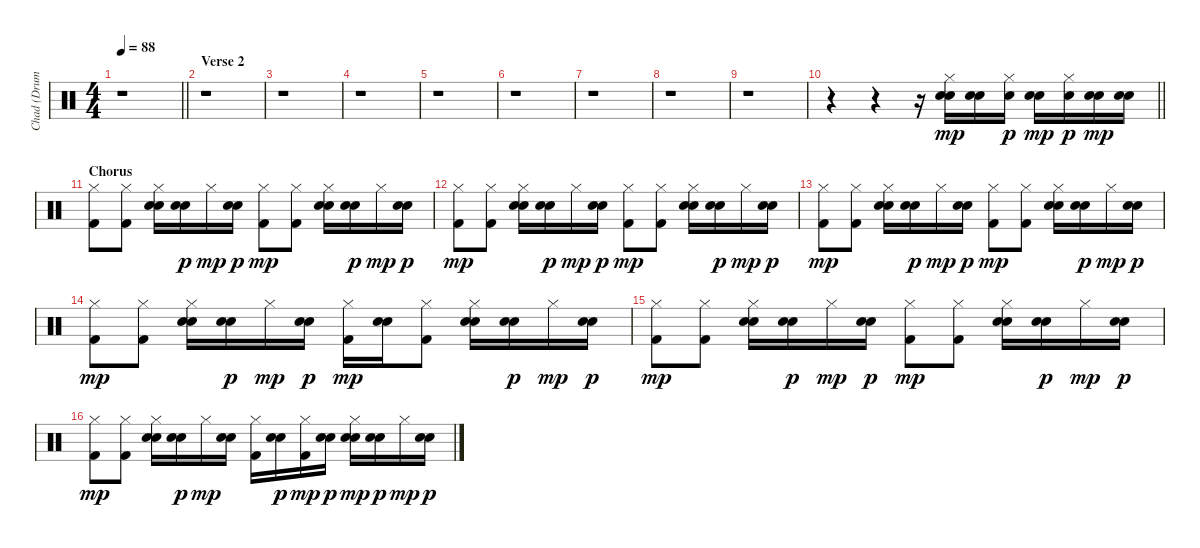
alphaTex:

\track ("Chad (Drums)" "Chad (Drum") {instrument percussion}
\staff {score}
\articulation defaults
\ts (4 4)
\tempo 88
\clef neutral
\barLineRight lightlight
\ks c
r.1{dy mp} |
\section ("" "Verse 2")
r.1 |
r.1 |
r.1 |
r.1 |
r.1 |
r.1 |
r.1 |
r.1 |
\barLineRight lightlight
r.4 r.4 r.16 ("Hi-Hat (closed)" "Electric Snare (hit)" "Snare (hit) 2").16 ("Electric Snare (hit)" "Snare (hit) 2").16 ("Hi-Hat (closed)" "Snare (hit) 2").16{dy p} ("Electric Snare (hit)" "Snare (hit) 2").16{dy mp} ("Hi-Hat (closed)" "Snare (hit) 2").16{dy p} ("Electric Snare (hit)" "Snare (hit) 2").16{dy mp} ("Electric Snare (hit)" "Snare (hit) 2").16 |
\section ("" "Chorus")
("Hi-Hat (closed)" "Kick (hit) 2").8 ("Hi-Hat (closed)" "Kick (hit) 2").8 ("Hi-Hat (closed)" "Electric Snare (hit)" "Snare (hit) 2").16 ("Electric Snare (hit)" "Snare (hit) 2").16{dy p} "Hi-Hat (closed)".16{dy mp} ("Electric Snare (hit)" "Snare (hit) 2").16{dy p} ("Hi-Hat (closed)" "Kick (hit) 2").8{dy mp} ("Hi-Hat (closed)" "Kick (hit) 2").8 ("Hi-Hat (closed)" "Electric Snare (hit)" "Snare (hit) 2").16 ("Electric Snare (hit)" "Snare (hit) 2").16{dy p} "Hi-Hat (closed)".16{dy mp} ("Electric Snare (hit)" "Snare (hit) 2").16{dy p} |
("Hi-Hat (closed)" "Kick (hit) 2").8{dy mp} ("Hi-Hat (closed)" "Kick (hit) 2").8 ("Hi-Hat (closed)" "Electric Snare (hit)" "Snare (hit) 2").16 ("Electric Snare (hit)" "Snare (hit) 2").16{dy p} "Hi-Hat (closed)".16{dy mp} ("Electric Snare (hit)" "Snare (hit) 2").16{dy p} ("Hi-Hat (closed)" "Kick (hit) 2").8{dy mp} ("Hi-Hat (closed)" "Kick (hit) 2").8 ("Hi-Hat (closed)" "Electric Snare (hit)" "Snare (hit) 2").16 ("Electric Snare (hit)" "Snare (hit) 2").16{dy p} "Hi-Hat (closed)".16{dy mp} ("Electric Snare (hit)" "Snare (hit) 2").16{dy p} |
("Hi-Hat (closed)" "Kick (hit) 2").8{dy mp} ("Hi-Hat (closed)" "Kick (hit) 2").8 ("Hi-Hat (closed)" "Electric Snare (hit)" "Snare (hit) 2").16 ("Electric Snare (hit)" "Snare (hit) 2").16{dy p} "Hi-Hat (closed)".16{dy mp} ("Electric Snare (hit)" "Snare (hit) 2").16{dy p} ("Hi-Hat (closed)" "Kick (hit) 2").8{dy mp} ("Hi-Hat (closed)" "Kick (hit) 2").8 ("Hi-Hat (closed)" "Electric Snare (hit)" "Snare (hit) 2").16 ("Electric Snare (hit)" "Snare (hit) 2").16{dy p} "Hi-Hat (closed)".16{dy mp} ("Electric Snare (hit)" "Snare (hit) 2").16{dy p} |
("Hi-Hat (closed)" "Kick (hit) 2").8{dy mp} ("Hi-Hat (closed)" "Kick (hit) 2").8 ("Hi-Hat (closed)" "Electric Snare (hit)" "Snare (hit) 2").16 ("Electric Snare (hit)" "Snare (hit) 2").16{dy p} "Hi-Hat (closed)".16{dy mp} ("Electric Snare (hit)" "Snare (hit) 2").16{dy p} ("Hi-Hat (closed)" "Kick (hit) 2").16{dy mp} ("Electric Snare (hit)" "Snare (hit) 2").16 ("Hi-Hat (closed)" "Kick (hit) 2").8 ("Hi-Hat (closed)" "Electric Snare (hit)" "Snare (hit) 2").16 ("Electric Snare (hit)" "Snare (hit) 2").16{dy p} "Hi-Hat (closed)".16{dy mp} ("Electric Snare (hit)" "Snare (hit) 2").16{dy p} |
("Hi-Hat (closed)" "Kick (hit) 2").8{dy mp} ("Hi-Hat (closed)" "Kick (hit) 2").8 ("Hi-Hat (closed)" "Electric Snare (hit)" "Snare (hit) 2").16 ("Electric Snare (hit)" "Snare (hit) 2").16{dy p} "Hi-Hat (closed)".16{dy mp} ("Electric Snare (hit)" "Snare (hit) 2").16{dy p} ("Hi-Hat (closed)" "Kick (hit) 2").8{dy mp} ("Hi-Hat (closed)" "Kick (hit) 2").8 ("Hi-Hat (closed)" "Electric Snare (hit)" "Snare (hit) 2").16 ("Electric Snare (hit)" "Snare (hit) 2").16{dy p} "Hi-Hat (closed)".16{dy mp} ("Electric Snare (hit)" "Snare (hit) 2").16{dy p} |
("Hi-Hat (closed)" "Kick (hit) 2").8{dy mp} ("Hi-Hat (closed)" "Kick (hit) 2").8 ("Hi-Hat (closed)" "Electric Snare (hit)" "Snare (hit) 2").16 ("Electric Snare (hit)" "Snare (hit) 2").16{dy p} "Hi-Hat (closed)".16{dy mp} ("Electric Snare (hit)" "Snare (hit) 2").16 ("Hi-Hat (closed)" "Kick (hit) 2").16 ("Electric Snare (hit)" "Snare (hit) 2").16{dy p} ("Hi-Hat (closed)" "Kick (hit) 2").16{dy mp} ("Electric Snare (hit)" "Snare (hit) 2").16{dy p} ("Hi-Hat (closed)" "Electric Snare (hit)" "Snare (hit) 2").16{dy mp} ("Electric Snare (hit)" "Snare (hit) 2").16{dy p} "Hi-Hat (closed)".16{dy mp} ("Electric Snare (hit)" "Snare (hit) 2").16{dy p}
